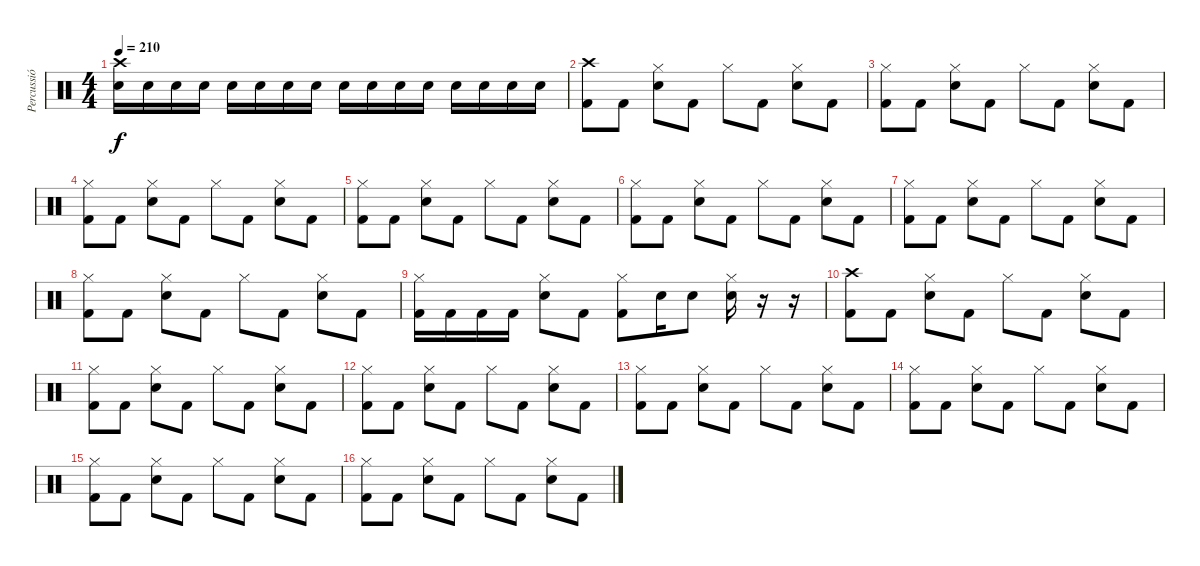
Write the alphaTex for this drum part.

\track ("Percussió" "Percussió") {instrument percussion}
\staff {score}
\articulation defaults
\ts (4 4)
\tempo 210
\clef neutral
\ks c
("Crash high (hit)" "Snare (hit) 2").16{dy f} "Snare (hit) 2".16 "Snare (hit) 2".16 "Snare (hit) 2".16 "Snare (hit) 2".16 "Snare (hit) 2".16 "Snare (hit) 2".16 "Snare (hit) 2".16 "Snare (hit) 2".16 "Snare (hit) 2".16 "Snare (hit) 2".16 "Snare (hit) 2".16 "Snare (hit) 2".16 "Snare (hit) 2".16 "Snare (hit) 2".16 "Snare (hit) 2".16 |
("Crash high (hit)" "Kick (hit) 2").8 "Kick (hit) 2".8 ("Hi-Hat (closed)" "Snare (hit) 2").8 "Kick (hit) 2".8 "Hi-Hat (closed)".8 "Kick (hit) 2".8 ("Hi-Hat (closed)" "Snare (hit) 2").8 "Kick (hit) 2".8 |
("Hi-Hat (closed)" "Kick (hit) 2").8 "Kick (hit) 2".8 ("Hi-Hat (closed)" "Snare (hit) 2").8 "Kick (hit) 2".8 "Hi-Hat (closed)".8 "Kick (hit) 2".8 ("Hi-Hat (closed)" "Snare (hit) 2").8 "Kick (hit) 2".8 |
("Hi-Hat (closed)" "Kick (hit) 2").8 "Kick (hit) 2".8 ("Hi-Hat (closed)" "Snare (hit) 2").8 "Kick (hit) 2".8 "Hi-Hat (closed)".8 "Kick (hit) 2".8 ("Hi-Hat (closed)" "Snare (hit) 2").8 "Kick (hit) 2".8 |
("Hi-Hat (closed)" "Kick (hit) 2").8 "Kick (hit) 2".8 ("Hi-Hat (closed)" "Snare (hit) 2").8 "Kick (hit) 2".8 "Hi-Hat (closed)".8 "Kick (hit) 2".8 ("Hi-Hat (closed)" "Snare (hit) 2").8 "Kick (hit) 2".8 |
("Hi-Hat (closed)" "Kick (hit) 2").8 "Kick (hit) 2".8 ("Hi-Hat (closed)" "Snare (hit) 2").8 "Kick (hit) 2".8 "Hi-Hat (closed)".8 "Kick (hit) 2".8 ("Hi-Hat (closed)" "Snare (hit) 2").8 "Kick (hit) 2".8 |
("Hi-Hat (closed)" "Kick (hit) 2").8 "Kick (hit) 2".8 ("Hi-Hat (closed)" "Snare (hit) 2").8 "Kick (hit) 2".8 "Hi-Hat (closed)".8 "Kick (hit) 2".8 ("Hi-Hat (closed)" "Snare (hit) 2").8 "Kick (hit) 2".8 |
("Hi-Hat (closed)" "Kick (hit) 2").8 "Kick (hit) 2".8 ("Hi-Hat (closed)" "Snare (hit) 2").8 "Kick (hit) 2".8 "Hi-Hat (closed)".8 "Kick (hit) 2".8 ("Hi-Hat (closed)" "Snare (hit) 2").8 "Kick (hit) 2".8 |
("Hi-Hat (closed)" "Kick (hit) 2").16 "Kick (hit) 2".16 "Kick (hit) 2".16 "Kick (hit) 2".16 ("Hi-Hat (closed)" "Snare (hit) 2").8 "Kick (hit) 2".8 ("Hi-Hat (closed)" "Kick (hit) 2").8 "Snare (hit) 2".16 "Snare (hit) 2".8 ("Hi-Hat (closed)" "Snare (hit) 2").16 r.16 r.16 |
("Crash high (hit)" "Kick (hit) 2").8 "Kick (hit) 2".8 ("Hi-Hat (closed)" "Snare (hit) 2").8 "Kick (hit) 2".8 "Hi-Hat (closed)".8 "Kick (hit) 2".8 ("Hi-Hat (closed)" "Snare (hit) 2").8 "Kick (hit) 2".8 |
("Hi-Hat (closed)" "Kick (hit) 2").8 "Kick (hit) 2".8 ("Hi-Hat (closed)" "Snare (hit) 2").8 "Kick (hit) 2".8 "Hi-Hat (closed)".8 "Kick (hit) 2".8 ("Hi-Hat (closed)" "Snare (hit) 2").8 "Kick (hit) 2".8 |
("Hi-Hat (closed)" "Kick (hit) 2").8 "Kick (hit) 2".8 ("Hi-Hat (closed)" "Snare (hit) 2").8 "Kick (hit) 2".8 "Hi-Hat (closed)".8 "Kick (hit) 2".8 ("Hi-Hat (closed)" "Snare (hit) 2").8 "Kick (hit) 2".8 |
("Hi-Hat (closed)" "Kick (hit) 2").8 "Kick (hit) 2".8 ("Hi-Hat (closed)" "Snare (hit) 2").8 "Kick (hit) 2".8 "Hi-Hat (closed)".8 "Kick (hit) 2".8 ("Hi-Hat (closed)" "Snare (hit) 2").8 "Kick (hit) 2".8 |
("Hi-Hat (closed)" "Kick (hit) 2").8 "Kick (hit) 2".8 ("Hi-Hat (closed)" "Snare (hit) 2").8 "Kick (hit) 2".8 "Hi-Hat (closed)".8 "Kick (hit) 2".8 ("Hi-Hat (closed)" "Snare (hit) 2").8 "Kick (hit) 2".8 |
("Hi-Hat (closed)" "Kick (hit) 2").8 "Kick (hit) 2".8 ("Hi-Hat (closed)" "Snare (hit) 2").8 "Kick (hit) 2".8 "Hi-Hat (closed)".8 "Kick (hit) 2".8 ("Hi-Hat (closed)" "Snare (hit) 2").8 "Kick (hit) 2".8 |
("Hi-Hat (closed)" "Kick (hit) 2").8 "Kick (hit) 2".8 ("Hi-Hat (closed)" "Snare (hit) 2").8 "Kick (hit) 2".8 "Hi-Hat (closed)".8 "Kick (hit) 2".8 ("Hi-Hat (closed)" "Snare (hit) 2").8 "Kick (hit) 2".8
